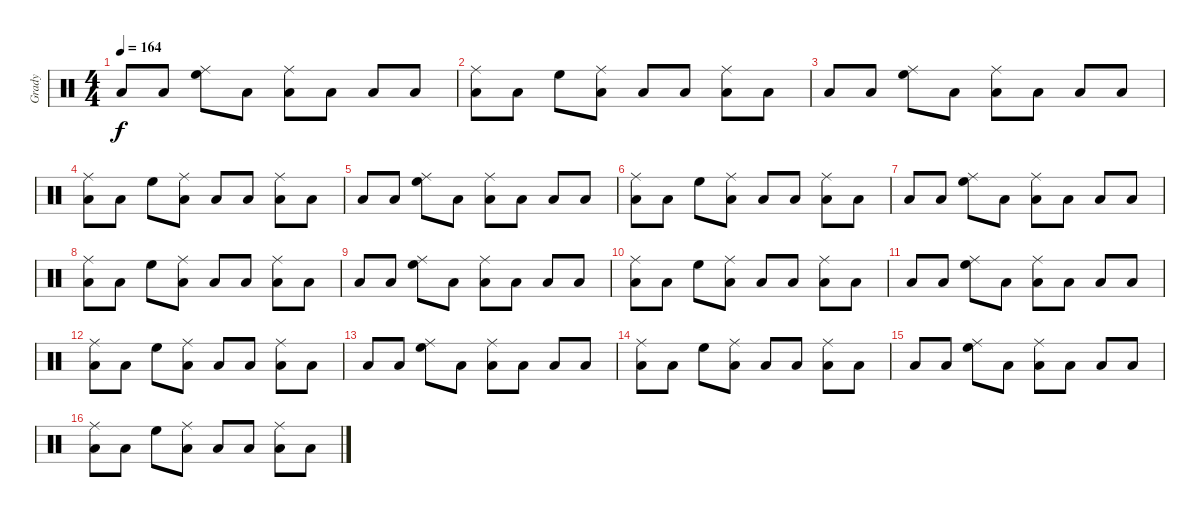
\track ("Grady" "Grady") {instrument percussion}
\staff {score}
\articulation defaults
\ts (4 4)
\tempo 164
\clef neutral
\ks c "Low Tom (hit)".8{dy f} "Low Tom (hit)".8
("High Floor Tom (hit)" "Ride (middle)").8 "Low Tom (hit)".8 ("Ride (middle)" "Low Tom (hit)").8 "Low Tom (hit)".8 "Low Tom (hit)".8 "Low Tom (hit)".8 |
("Ride (middle)" "Low Tom (hit)").8 "Low Tom (hit)".8 "High Floor Tom (hit)".8 ("Ride (middle)" "Low Tom (hit)").8 "Low Tom (hit)".8 "Low Tom (hit)".8 ("Ride (middle)" "Low Tom (hit)").8 "Low Tom (hit)".8 |
"Low Tom (hit)".8 "Low Tom (hit)".8 ("High Floor Tom (hit)" "Ride (middle)").8 "Low Tom (hit)".8 ("Ride (middle)" "Low Tom (hit)").8 "Low Tom (hit)".8 "Low Tom (hit)".8 "Low Tom (hit)".8 |
("Ride (middle)" "Low Tom (hit)").8 "Low Tom (hit)".8 "High Floor Tom (hit)".8 ("Ride (middle)" "Low Tom (hit)").8 "Low Tom (hit)".8 "Low Tom (hit)".8 ("Ride (middle)" "Low Tom (hit)").8 "Low Tom (hit)".8 |
"Low Tom (hit)".8 "Low Tom (hit)".8 ("High Floor Tom (hit)" "Ride (middle)").8 "Low Tom (hit)".8 ("Ride (middle)" "Low Tom (hit)").8 "Low Tom (hit)".8 "Low Tom (hit)".8 "Low Tom (hit)".8 |
("Ride (middle)" "Low Tom (hit)").8 "Low Tom (hit)".8 "High Floor Tom (hit)".8 ("Ride (middle)" "Low Tom (hit)").8 "Low Tom (hit)".8 "Low Tom (hit)".8 ("Ride (middle)" "Low Tom (hit)").8 "Low Tom (hit)".8 |
"Low Tom (hit)".8 "Low Tom (hit)".8 ("High Floor Tom (hit)" "Ride (middle)").8 "Low Tom (hit)".8 ("Ride (middle)" "Low Tom (hit)").8 "Low Tom (hit)".8 "Low Tom (hit)".8 "Low Tom (hit)".8 |
("Ride (middle)" "Low Tom (hit)").8 "Low Tom (hit)".8 "High Floor Tom (hit)".8 ("Ride (middle)" "Low Tom (hit)").8 "Low Tom (hit)".8 "Low Tom (hit)".8 ("Ride (middle)" "Low Tom (hit)").8 "Low Tom (hit)".8 |
"Low Tom (hit)".8 "Low Tom (hit)".8 ("High Floor Tom (hit)" "Ride (middle)").8 "Low Tom (hit)".8 ("Ride (middle)" "Low Tom (hit)").8 "Low Tom (hit)".8 "Low Tom (hit)".8 "Low Tom (hit)".8 |
("Ride (middle)" "Low Tom (hit)").8 "Low Tom (hit)".8 "High Floor Tom (hit)".8 ("Ride (middle)" "Low Tom (hit)").8 "Low Tom (hit)".8 "Low Tom (hit)".8 ("Ride (middle)" "Low Tom (hit)").8 "Low Tom (hit)".8 |
"Low Tom (hit)".8 "Low Tom (hit)".8 ("High Floor Tom (hit)" "Ride (middle)").8 "Low Tom (hit)".8 ("Ride (middle)" "Low Tom (hit)").8 "Low Tom (hit)".8 "Low Tom (hit)".8 "Low Tom (hit)".8 |
("Ride (middle)" "Low Tom (hit)").8 "Low Tom (hit)".8 "High Floor Tom (hit)".8 ("Ride (middle)" "Low Tom (hit)").8 "Low Tom (hit)".8 "Low Tom (hit)".8 ("Ride (middle)" "Low Tom (hit)").8 "Low Tom (hit)".8 |
"Low Tom (hit)".8 "Low Tom (hit)".8 ("High Floor Tom (hit)" "Ride (middle)").8 "Low Tom (hit)".8 ("Ride (middle)" "Low Tom (hit)").8 "Low Tom (hit)".8 "Low Tom (hit)".8 "Low Tom (hit)".8 |
("Ride (middle)" "Low Tom (hit)").8 "Low Tom (hit)".8 "High Floor Tom (hit)".8 ("Ride (middle)" "Low Tom (hit)").8 "Low Tom (hit)".8 "Low Tom (hit)".8 ("Ride (middle)" "Low Tom (hit)").8 "Low Tom (hit)".8 |
"Low Tom (hit)".8 "Low Tom (hit)".8 ("High Floor Tom (hit)" "Ride (middle)").8 "Low Tom (hit)".8 ("Ride (middle)" "Low Tom (hit)").8 "Low Tom (hit)".8 "Low Tom (hit)".8 "Low Tom (hit)".8 |
("Ride (middle)" "Low Tom (hit)").8 "Low Tom (hit)".8 "High Floor Tom (hit)".8 ("Ride (middle)" "Low Tom (hit)").8 "Low Tom (hit)".8 "Low Tom (hit)".8 ("Ride (middle)" "Low Tom (hit)").8 "Low Tom (hit)".8
